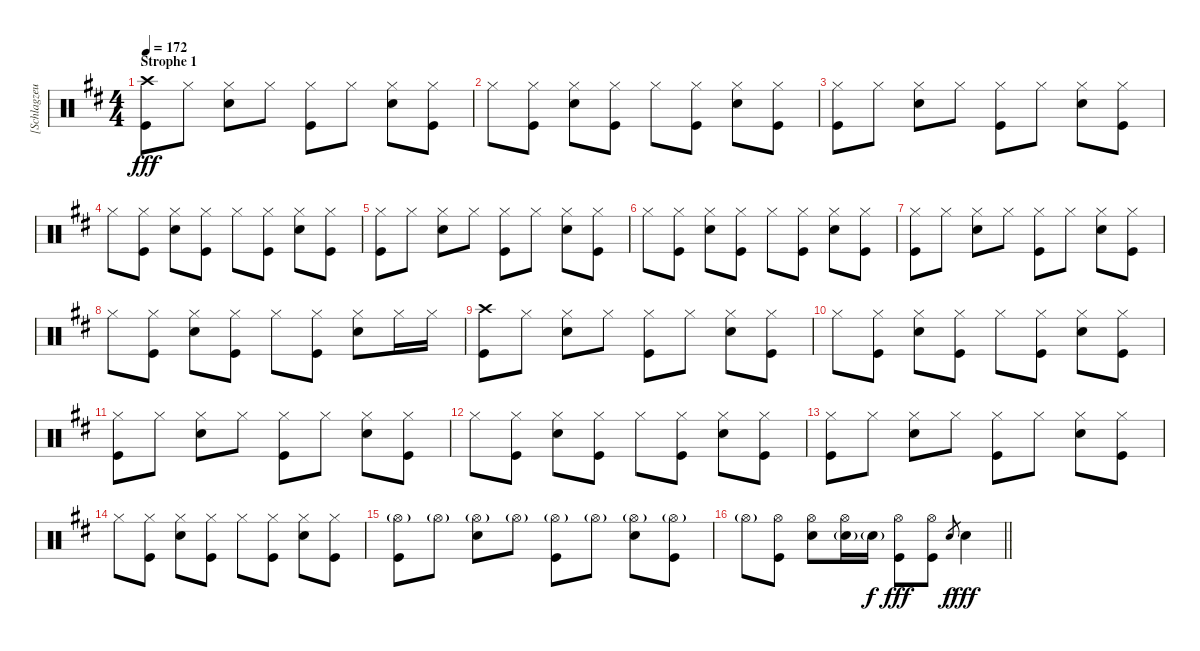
\track ("[Schlagzeug]" "[Schlagzeu") {instrument percussion}
\staff {score}
\articulation defaults
\ts (4 4)
\section ("" "Strophe 1")
\tempo 172
\clef neutral
\ks d
("Crash high (hit)" "Kick (hit)").8{dy fff} "Hi-Hat (closed)".8 ("Hi-Hat (closed)" "Electric Snare (hit)").8 "Hi-Hat (closed)".8 ("Hi-Hat (closed)" "Kick (hit)").8 "Hi-Hat (closed)".8 ("Hi-Hat (closed)" "Electric Snare (hit)").8 ("Hi-Hat (closed)" "Kick (hit)").8 |
"Hi-Hat (closed)".8 ("Hi-Hat (closed)" "Kick (hit)").8 ("Hi-Hat (closed)" "Electric Snare (hit)").8 ("Hi-Hat (closed)" "Kick (hit)").8 "Hi-Hat (closed)".8 ("Hi-Hat (closed)" "Kick (hit)").8 ("Hi-Hat (closed)" "Electric Snare (hit)").8 ("Hi-Hat (closed)" "Kick (hit)").8 |
("Hi-Hat (closed)" "Kick (hit)").8 "Hi-Hat (closed)".8 ("Hi-Hat (closed)" "Electric Snare (hit)").8 "Hi-Hat (closed)".8 ("Hi-Hat (closed)" "Kick (hit)").8 "Hi-Hat (closed)".8 ("Hi-Hat (closed)" "Electric Snare (hit)").8 ("Hi-Hat (closed)" "Kick (hit)").8 |
"Hi-Hat (closed)".8 ("Hi-Hat (closed)" "Kick (hit)").8 ("Hi-Hat (closed)" "Electric Snare (hit)").8 ("Hi-Hat (closed)" "Kick (hit)").8 "Hi-Hat (closed)".8 ("Hi-Hat (closed)" "Kick (hit)").8 ("Hi-Hat (closed)" "Electric Snare (hit)").8 ("Hi-Hat (closed)" "Kick (hit)").8 |
("Hi-Hat (closed)" "Kick (hit)").8 "Hi-Hat (closed)".8 ("Hi-Hat (closed)" "Electric Snare (hit)").8 "Hi-Hat (closed)".8 ("Hi-Hat (closed)" "Kick (hit)").8 "Hi-Hat (closed)".8 ("Hi-Hat (closed)" "Electric Snare (hit)").8 ("Hi-Hat (closed)" "Kick (hit)").8 |
"Hi-Hat (closed)".8 ("Hi-Hat (closed)" "Kick (hit)").8 ("Hi-Hat (closed)" "Electric Snare (hit)").8 ("Hi-Hat (closed)" "Kick (hit)").8 "Hi-Hat (closed)".8 ("Hi-Hat (closed)" "Kick (hit)").8 ("Hi-Hat (closed)" "Electric Snare (hit)").8 ("Hi-Hat (closed)" "Kick (hit)").8 |
("Hi-Hat (closed)" "Kick (hit)").8 "Hi-Hat (closed)".8 ("Hi-Hat (closed)" "Electric Snare (hit)").8 "Hi-Hat (closed)".8 ("Hi-Hat (closed)" "Kick (hit)").8 "Hi-Hat (closed)".8 ("Hi-Hat (closed)" "Electric Snare (hit)").8 ("Hi-Hat (closed)" "Kick (hit)").8 |
"Hi-Hat (closed)".8 ("Hi-Hat (closed)" "Kick (hit)").8 ("Hi-Hat (closed)" "Electric Snare (hit)").8 ("Hi-Hat (closed)" "Kick (hit)").8 "Hi-Hat (closed)".8 ("Hi-Hat (closed)" "Kick (hit)").8 ("Hi-Hat (closed)" "Electric Snare (hit)").8 "Hi-Hat (closed)".16 "Hi-Hat (closed)".16 |
("Crash high (hit)" "Kick (hit)").8 "Hi-Hat (closed)".8 ("Hi-Hat (closed)" "Electric Snare (hit)").8 "Hi-Hat (closed)".8 ("Hi-Hat (closed)" "Kick (hit)").8 "Hi-Hat (closed)".8 ("Hi-Hat (closed)" "Electric Snare (hit)").8 ("Hi-Hat (closed)" "Kick (hit)").8 |
"Hi-Hat (closed)".8 ("Hi-Hat (closed)" "Kick (hit)").8 ("Hi-Hat (closed)" "Electric Snare (hit)").8 ("Hi-Hat (closed)" "Kick (hit)").8 "Hi-Hat (closed)".8 ("Hi-Hat (closed)" "Kick (hit)").8 ("Hi-Hat (closed)" "Electric Snare (hit)").8 ("Hi-Hat (closed)" "Kick (hit)").8 |
("Hi-Hat (closed)" "Kick (hit)").8 "Hi-Hat (closed)".8 ("Hi-Hat (closed)" "Electric Snare (hit)").8 "Hi-Hat (closed)".8 ("Hi-Hat (closed)" "Kick (hit)").8 "Hi-Hat (closed)".8 ("Hi-Hat (closed)" "Electric Snare (hit)").8 ("Hi-Hat (closed)" "Kick (hit)").8 |
"Hi-Hat (closed)".8 ("Hi-Hat (closed)" "Kick (hit)").8 ("Hi-Hat (closed)" "Electric Snare (hit)").8 ("Hi-Hat (closed)" "Kick (hit)").8 "Hi-Hat (closed)".8 ("Hi-Hat (closed)" "Kick (hit)").8 ("Hi-Hat (closed)" "Electric Snare (hit)").8 ("Hi-Hat (closed)" "Kick (hit)").8 |
("Hi-Hat (closed)" "Kick (hit)").8 "Hi-Hat (closed)".8 ("Hi-Hat (closed)" "Electric Snare (hit)").8 "Hi-Hat (closed)".8 ("Hi-Hat (closed)" "Kick (hit)").8 "Hi-Hat (closed)".8 ("Hi-Hat (closed)" "Electric Snare (hit)").8 ("Hi-Hat (closed)" "Kick (hit)").8 |
"Hi-Hat (closed)".8 ("Hi-Hat (closed)" "Kick (hit)").8 ("Hi-Hat (closed)" "Electric Snare (hit)").8 ("Hi-Hat (closed)" "Kick (hit)").8 "Hi-Hat (closed)".8 ("Hi-Hat (closed)" "Kick (hit)").8 ("Hi-Hat (closed)" "Electric Snare (hit)").8 ("Hi-Hat (closed)" "Kick (hit)").8 |
("Hi-Hat (open)"{g} "Kick (hit)").8 "Hi-Hat (open)"{g}.8 ("Hi-Hat (open)"{g} "Electric Snare (hit)").8 "Hi-Hat (open)"{g}.8 ("Hi-Hat (open)"{g} "Kick (hit)").8 "Hi-Hat (open)"{g}.8 ("Hi-Hat (open)"{g} "Electric Snare (hit)").8 ("Hi-Hat (open)"{g} "Kick (hit)").8 |
\barLineRight lightlight "Hi-Hat (open)"{g}.8
("Hi-Hat (open)" "Kick (hit)").8 ("Hi-Hat (open)" "Electric Snare (hit)").8 ("Hi-Hat (open)" "Electric Snare (hit)"{g}).16 "Electric Snare (hit)"{g}.16{dy f} ("Hi-Hat (open)" "Kick (hit)").8{dy fff} ("Hi-Hat (open)" "Kick (hit)").8 "Electric Snare (hit)".8{gr dy f} "Electric Snare (hit)".4{dy fff}
